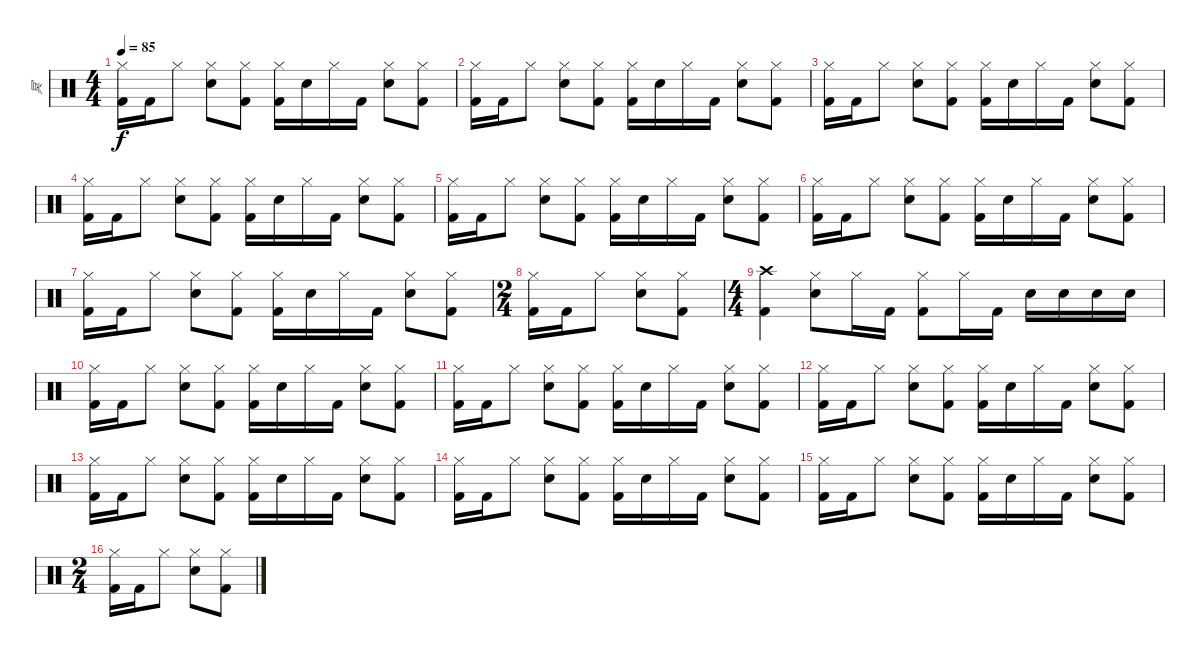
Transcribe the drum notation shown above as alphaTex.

\track ("冥" "冥") {instrument percussion}
\staff {score}
\articulation defaults
\ts (4 4)
\tempo 85
\clef neutral
\ks c
("Hi-Hat (closed)" "Kick (hit) 2").16{dy f} "Kick (hit) 2".16 "Hi-Hat (closed)".8 ("Hi-Hat (closed)" "Snare (hit) 2").8 ("Hi-Hat (closed)" "Kick (hit) 2").8 ("Hi-Hat (closed)" "Kick (hit) 2").16 "Snare (hit) 2".16 "Hi-Hat (closed)".16 "Kick (hit) 2".16 ("Hi-Hat (closed)" "Snare (hit) 2").8 ("Hi-Hat (closed)" "Kick (hit) 2").8 |
("Hi-Hat (closed)" "Kick (hit) 2").16 "Kick (hit) 2".16 "Hi-Hat (closed)".8 ("Hi-Hat (closed)" "Snare (hit) 2").8 ("Hi-Hat (closed)" "Kick (hit) 2").8 ("Hi-Hat (closed)" "Kick (hit) 2").16 "Snare (hit) 2".16 "Hi-Hat (closed)".16 "Kick (hit) 2".16 ("Hi-Hat (closed)" "Snare (hit) 2").8 ("Hi-Hat (closed)" "Kick (hit) 2").8 |
("Hi-Hat (closed)" "Kick (hit) 2").16 "Kick (hit) 2".16 "Hi-Hat (closed)".8 ("Hi-Hat (closed)" "Snare (hit) 2").8 ("Hi-Hat (closed)" "Kick (hit) 2").8 ("Hi-Hat (closed)" "Kick (hit) 2").16 "Snare (hit) 2".16 "Hi-Hat (closed)".16 "Kick (hit) 2".16 ("Hi-Hat (closed)" "Snare (hit) 2").8 ("Hi-Hat (closed)" "Kick (hit) 2").8 |
("Hi-Hat (closed)" "Kick (hit) 2").16 "Kick (hit) 2".16 "Hi-Hat (closed)".8 ("Hi-Hat (closed)" "Snare (hit) 2").8 ("Hi-Hat (closed)" "Kick (hit) 2").8 ("Hi-Hat (closed)" "Kick (hit) 2").16 "Snare (hit) 2".16 "Hi-Hat (closed)".16 "Kick (hit) 2".16 ("Hi-Hat (closed)" "Snare (hit) 2").8 ("Hi-Hat (closed)" "Kick (hit) 2").8 |
("Hi-Hat (closed)" "Kick (hit) 2").16 "Kick (hit) 2".16 "Hi-Hat (closed)".8 ("Hi-Hat (closed)" "Snare (hit) 2").8 ("Hi-Hat (closed)" "Kick (hit) 2").8 ("Hi-Hat (closed)" "Kick (hit) 2").16 "Snare (hit) 2".16 "Hi-Hat (closed)".16 "Kick (hit) 2".16 ("Hi-Hat (closed)" "Snare (hit) 2").8 ("Hi-Hat (closed)" "Kick (hit) 2").8 |
("Hi-Hat (closed)" "Kick (hit) 2").16 "Kick (hit) 2".16 "Hi-Hat (closed)".8 ("Hi-Hat (closed)" "Snare (hit) 2").8 ("Hi-Hat (closed)" "Kick (hit) 2").8 ("Hi-Hat (closed)" "Kick (hit) 2").16 "Snare (hit) 2".16 "Hi-Hat (closed)".16 "Kick (hit) 2".16 ("Hi-Hat (closed)" "Snare (hit) 2").8 ("Hi-Hat (closed)" "Kick (hit) 2").8 |
("Hi-Hat (closed)" "Kick (hit) 2").16 "Kick (hit) 2".16 "Hi-Hat (closed)".8 ("Hi-Hat (closed)" "Snare (hit) 2").8 ("Hi-Hat (closed)" "Kick (hit) 2").8 ("Hi-Hat (closed)" "Kick (hit) 2").16 "Snare (hit) 2".16 "Hi-Hat (closed)".16 "Kick (hit) 2".16 ("Hi-Hat (closed)" "Snare (hit) 2").8 ("Hi-Hat (closed)" "Kick (hit) 2").8 |
\ts (2 4)
("Hi-Hat (closed)" "Kick (hit) 2").16 "Kick (hit) 2".16 "Hi-Hat (closed)".8 ("Hi-Hat (closed)" "Snare (hit) 2").8 ("Hi-Hat (closed)" "Kick (hit) 2").8 |
\ts (4 4)
("Crash high (hit)" "Kick (hit) 2").4 ("Hi-Hat (closed)" "Snare (hit) 2").8 "Hi-Hat (closed)".16 "Kick (hit) 2".16 ("Hi-Hat (closed)" "Kick (hit) 2").8 "Hi-Hat (closed)".16 "Kick (hit) 2".16 "Snare (hit) 2".16 "Snare (hit) 2".16 "Snare (hit) 2".16 "Snare (hit) 2".16 |
("Hi-Hat (closed)" "Kick (hit) 2").16 "Kick (hit) 2".16 "Hi-Hat (closed)".8 ("Hi-Hat (closed)" "Snare (hit) 2").8 ("Hi-Hat (closed)" "Kick (hit) 2").8 ("Hi-Hat (closed)" "Kick (hit) 2").16 "Snare (hit) 2".16 "Hi-Hat (closed)".16 "Kick (hit) 2".16 ("Hi-Hat (closed)" "Snare (hit) 2").8 ("Hi-Hat (closed)" "Kick (hit) 2").8 |
("Hi-Hat (closed)" "Kick (hit) 2").16 "Kick (hit) 2".16 "Hi-Hat (closed)".8 ("Hi-Hat (closed)" "Snare (hit) 2").8 ("Hi-Hat (closed)" "Kick (hit) 2").8 ("Hi-Hat (closed)" "Kick (hit) 2").16 "Snare (hit) 2".16 "Hi-Hat (closed)".16 "Kick (hit) 2".16 ("Hi-Hat (closed)" "Snare (hit) 2").8 ("Hi-Hat (closed)" "Kick (hit) 2").8 |
("Hi-Hat (closed)" "Kick (hit) 2").16 "Kick (hit) 2".16 "Hi-Hat (closed)".8 ("Hi-Hat (closed)" "Snare (hit) 2").8 ("Hi-Hat (closed)" "Kick (hit) 2").8 ("Hi-Hat (closed)" "Kick (hit) 2").16 "Snare (hit) 2".16 "Hi-Hat (closed)".16 "Kick (hit) 2".16 ("Hi-Hat (closed)" "Snare (hit) 2").8 ("Hi-Hat (closed)" "Kick (hit) 2").8 |
("Hi-Hat (closed)" "Kick (hit) 2").16 "Kick (hit) 2".16 "Hi-Hat (closed)".8 ("Hi-Hat (closed)" "Snare (hit) 2").8 ("Hi-Hat (closed)" "Kick (hit) 2").8 ("Hi-Hat (closed)" "Kick (hit) 2").16 "Snare (hit) 2".16 "Hi-Hat (closed)".16 "Kick (hit) 2".16 ("Hi-Hat (closed)" "Snare (hit) 2").8 ("Hi-Hat (closed)" "Kick (hit) 2").8 |
("Hi-Hat (closed)" "Kick (hit) 2").16 "Kick (hit) 2".16 "Hi-Hat (closed)".8 ("Hi-Hat (closed)" "Snare (hit) 2").8 ("Hi-Hat (closed)" "Kick (hit) 2").8 ("Hi-Hat (closed)" "Kick (hit) 2").16 "Snare (hit) 2".16 "Hi-Hat (closed)".16 "Kick (hit) 2".16 ("Hi-Hat (closed)" "Snare (hit) 2").8 ("Hi-Hat (closed)" "Kick (hit) 2").8 |
("Hi-Hat (closed)" "Kick (hit) 2").16 "Kick (hit) 2".16 "Hi-Hat (closed)".8 ("Hi-Hat (closed)" "Snare (hit) 2").8 ("Hi-Hat (closed)" "Kick (hit) 2").8 ("Hi-Hat (closed)" "Kick (hit) 2").16 "Snare (hit) 2".16 "Hi-Hat (closed)".16 "Kick (hit) 2".16 ("Hi-Hat (closed)" "Snare (hit) 2").8 ("Hi-Hat (closed)" "Kick (hit) 2").8 |
\ts (2 4)
("Hi-Hat (closed)" "Kick (hit) 2").16 "Kick (hit) 2".16 "Hi-Hat (closed)".8 ("Hi-Hat (closed)" "Snare (hit) 2").8 ("Hi-Hat (closed)" "Kick (hit) 2").8
